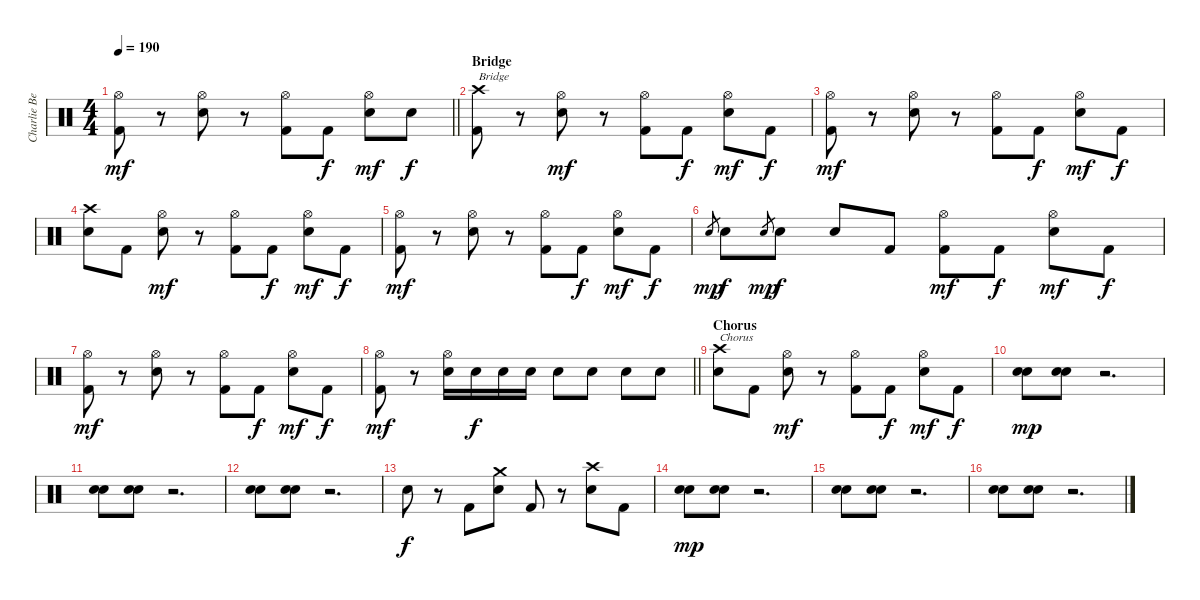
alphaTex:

\track ("Charlie Benante" "Charlie Be") {instrument percussion}
\staff {score}
\articulation defaults
\ts (4 4)
\tempo 190
\clef neutral
\barLineRight lightlight
\ks c
("Hi-Hat (open)" "Kick (hit) 2").8{dy mf} r.8 ("Hi-Hat (open)" "Electric Snare (hit)").8 r.8 ("Hi-Hat (open)" "Kick (hit) 2").8 "Kick (hit) 2".8{dy f} ("Hi-Hat (open)" "Electric Snare (hit)").8{dy mf} "Snare (hit) 2".8{dy f} |
\section ("" "Bridge")
("Crash high (hit)" "Kick (hit) 2").8{txt "Bridge"} r.8 ("Hi-Hat (open)" "Electric Snare (hit)").8{dy mf} r.8 ("Hi-Hat (open)" "Kick (hit) 2").8 "Kick (hit) 2".8{dy f} ("Hi-Hat (open)" "Electric Snare (hit)").8{dy mf} "Kick (hit) 2".8{dy f} |
("Hi-Hat (open)" "Kick (hit) 2").8{dy mf} r.8 ("Hi-Hat (open)" "Electric Snare (hit)").8 r.8 ("Hi-Hat (open)" "Kick (hit) 2").8 "Kick (hit) 2".8{dy f} ("Hi-Hat (open)" "Electric Snare (hit)").8{dy mf} "Kick (hit) 2".8{dy f} |
("Crash high (hit)" "Electric Snare (hit)").8 "Kick (hit) 2".8 ("Hi-Hat (open)" "Electric Snare (hit)").8{dy mf} r.8 ("Hi-Hat (open)" "Kick (hit) 2").8 "Kick (hit) 2".8{dy f} ("Hi-Hat (open)" "Electric Snare (hit)").8{dy mf} "Kick (hit) 2".8{dy f} |
("Hi-Hat (open)" "Kick (hit) 2").8{dy mf} r.8 ("Hi-Hat (open)" "Electric Snare (hit)").8 r.8 ("Hi-Hat (open)" "Kick (hit) 2").8 "Kick (hit) 2".8{dy f} ("Hi-Hat (open)" "Electric Snare (hit)").8{dy mf} "Kick (hit) 2".8{dy f} |
"Snare (hit) 2".8{gr dy mp} "Electric Snare (hit)".8{dy f} "Snare (hit) 2".8{gr dy mp} "Electric Snare (hit)".8{dy f} "Electric Snare (hit)".8 "Kick (hit) 2".8 ("Hi-Hat (open)" "Kick (hit) 2").8{dy mf} "Kick (hit) 2".8{dy f} ("Hi-Hat (open)" "Electric Snare (hit)").8{dy mf} "Kick (hit) 2".8{dy f} |
("Hi-Hat (open)" "Kick (hit) 2").8{dy mf} r.8 ("Hi-Hat (open)" "Electric Snare (hit)").8 r.8 ("Hi-Hat (open)" "Kick (hit) 2").8 "Kick (hit) 2".8{dy f} ("Hi-Hat (open)" "Electric Snare (hit)").8{dy mf} "Kick (hit) 2".8{dy f} |
\barLineRight lightlight
("Hi-Hat (open)" "Kick (hit) 2").8{dy mf} r.8 ("Hi-Hat (open)" "Electric Snare (hit)").16 "Electric Snare (hit)".16{dy f} "Electric Snare (hit)".16 "Electric Snare (hit)".16 "Electric Snare (hit)".8 "Electric Snare (hit)".8 "Electric Snare (hit)".8 "Electric Snare (hit)".8 |
\section ("" "Chorus")
("Crash high (hit)" "Electric Snare (hit)").8{txt "Chorus"} "Kick (hit) 2".8 ("Hi-Hat (open)" "Electric Snare (hit)").8{dy mf} r.8 ("Hi-Hat (open)" "Kick (hit) 2").8 "Kick (hit) 2".8{dy f} ("Hi-Hat (open)" "Electric Snare (hit)").8{dy mf} "Kick (hit) 2".8{dy f} |
("Snare (hit) 2" "Electric Snare (hit)").8{dy mp} ("Snare (hit) 2" "Electric Snare (hit)").8 r.2{d} |
("Snare (hit) 2" "Electric Snare (hit)").8 ("Snare (hit) 2" "Electric Snare (hit)").8 r.2{d} |
("Snare (hit) 2" "Electric Snare (hit)").8 ("Snare (hit) 2" "Electric Snare (hit)").8 r.2{d} |
"Electric Snare (hit)".8{dy f} r.8 "Kick (hit) 2".8 ("Crash medium (hit)" "Electric Snare (hit)").8 "Kick (hit) 2".8 r.8 ("Crash high (hit)" "Electric Snare (hit)").8 "Kick (hit) 2".8 |
("Snare (hit) 2" "Electric Snare (hit)").8{dy mp} ("Snare (hit) 2" "Electric Snare (hit)").8 r.2{d} |
("Snare (hit) 2" "Electric Snare (hit)").8 ("Snare (hit) 2" "Electric Snare (hit)").8 r.2{d} |
("Snare (hit) 2" "Electric Snare (hit)").8 ("Snare (hit) 2" "Electric Snare (hit)").8 r.2{d}
